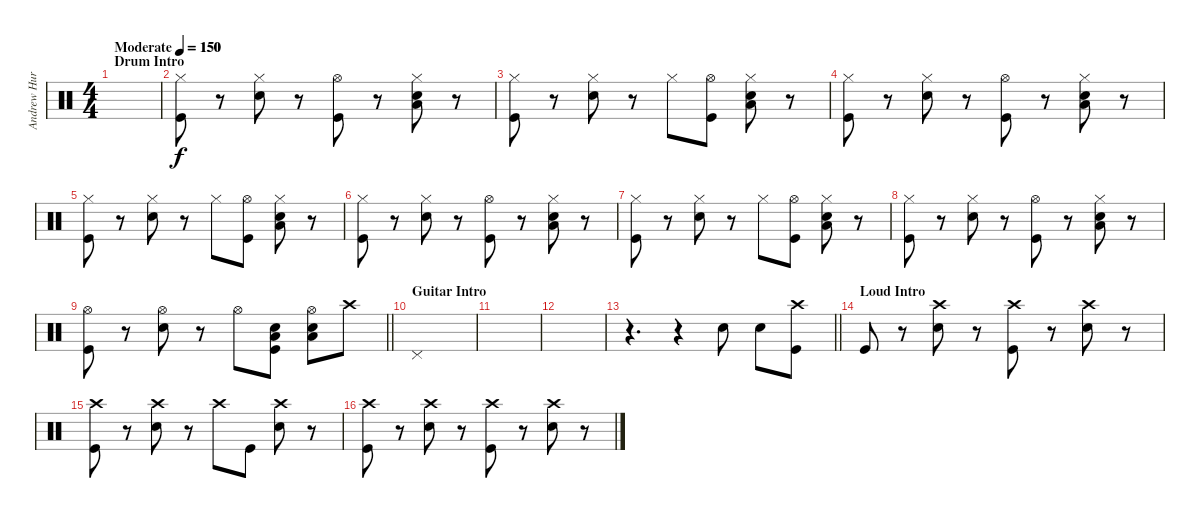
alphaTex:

\track ("Andrew Hurley (Drums)" "Andrew Hur") {instrument percussion}
\staff {score}
\articulation defaults
\ts (4 4)
\section ("" "Drum Intro")
\tempo (150 "Moderate")
\tempo 300
\tempo (150 "Moderate")
\clef neutral
\ks c
|
\tempo 150
("Hi-Hat (closed)" "Kick (hit)").8 r.8 ("Hi-Hat (closed)" "Snare (hit) 2").8 r.8 ("Hi-Hat (open)" "Kick (hit)").8 r.8 ("Hi-Hat (closed)" "Low Floor Tom (hit)" "Snare (hit) 2").8 r.8 |
("Hi-Hat (closed)" "Kick (hit)").8 r.8 ("Hi-Hat (closed)" "Snare (hit) 2").8 r.8 "Hi-Hat (closed)".8 ("Hi-Hat (open)" "Kick (hit)").8 ("Hi-Hat (closed)" "Snare (hit) 2" "Low Floor Tom (hit)").8 r.8 |
("Hi-Hat (closed)" "Kick (hit)").8 r.8 ("Hi-Hat (closed)" "Snare (hit) 2").8 r.8 ("Hi-Hat (open)" "Kick (hit)").8 r.8 ("Hi-Hat (closed)" "Low Floor Tom (hit)" "Snare (hit) 2").8 r.8 |
("Hi-Hat (closed)" "Kick (hit)").8 r.8 ("Hi-Hat (closed)" "Snare (hit) 2").8 r.8 "Hi-Hat (closed)".8 ("Hi-Hat (open)" "Kick (hit)").8 ("Hi-Hat (closed)" "Snare (hit) 2" "Low Floor Tom (hit)").8 r.8 |
("Hi-Hat (closed)" "Kick (hit)").8 r.8 ("Hi-Hat (closed)" "Snare (hit) 2").8 r.8 ("Hi-Hat (open)" "Kick (hit)").8 r.8 ("Hi-Hat (closed)" "Low Floor Tom (hit)" "Snare (hit) 2").8 r.8 |
("Hi-Hat (closed)" "Kick (hit)").8 r.8 ("Hi-Hat (closed)" "Snare (hit) 2").8 r.8 "Hi-Hat (closed)".8 ("Hi-Hat (open)" "Kick (hit)").8 ("Hi-Hat (closed)" "Snare (hit) 2" "Low Floor Tom (hit)").8 r.8 |
("Hi-Hat (closed)" "Kick (hit)").8 r.8 ("Hi-Hat (closed)" "Snare (hit) 2").8 r.8 ("Hi-Hat (open)" "Kick (hit)").8 r.8 ("Hi-Hat (closed)" "Low Floor Tom (hit)" "Snare (hit) 2").8 r.8 |
\barLineRight lightlight
("Hi-Hat (open)" "Kick (hit)").8 r.8 ("Hi-Hat (open)" "Snare (hit) 2").8 r.8 "Hi-Hat (open)".8 ("Snare (hit) 2" "Low Floor Tom (hit)" "Kick (hit)").8 ("Hi-Hat (open)" "Snare (hit) 2" "Low Floor Tom (hit)").8 "Crash high (hit)".8 |
\section ("" "Guitar Intro")
"Pedal Hi-Hat (hit)".1 |
|
|
\barLineRight lightlight
r.4{d} r.4 "Snare (hit) 2".8 "Snare (hit) 2".8 ("Crash high (hit)" "Kick (hit)").8 |
\section ("" "Loud Intro")
"Kick (hit)".8 r.8 ("Crash high (hit)" "Snare (hit) 2").8 r.8 ("Crash high (hit)" "Kick (hit)").8 r.8 ("Crash high (hit)" "Snare (hit) 2").8 r.8 |
("Crash high (hit)" "Kick (hit)").8 r.8 ("Crash high (hit)" "Snare (hit) 2").8 r.8 "Crash high (hit)".8 "Kick (hit)".8 ("Crash high (hit)" "Snare (hit) 2").8 r.8 |
("Crash high (hit)" "Kick (hit)").8 r.8 ("Crash high (hit)" "Snare (hit) 2").8 r.8 ("Crash high (hit)" "Kick (hit)").8 r.8 ("Crash high (hit)" "Snare (hit) 2").8 r.8
